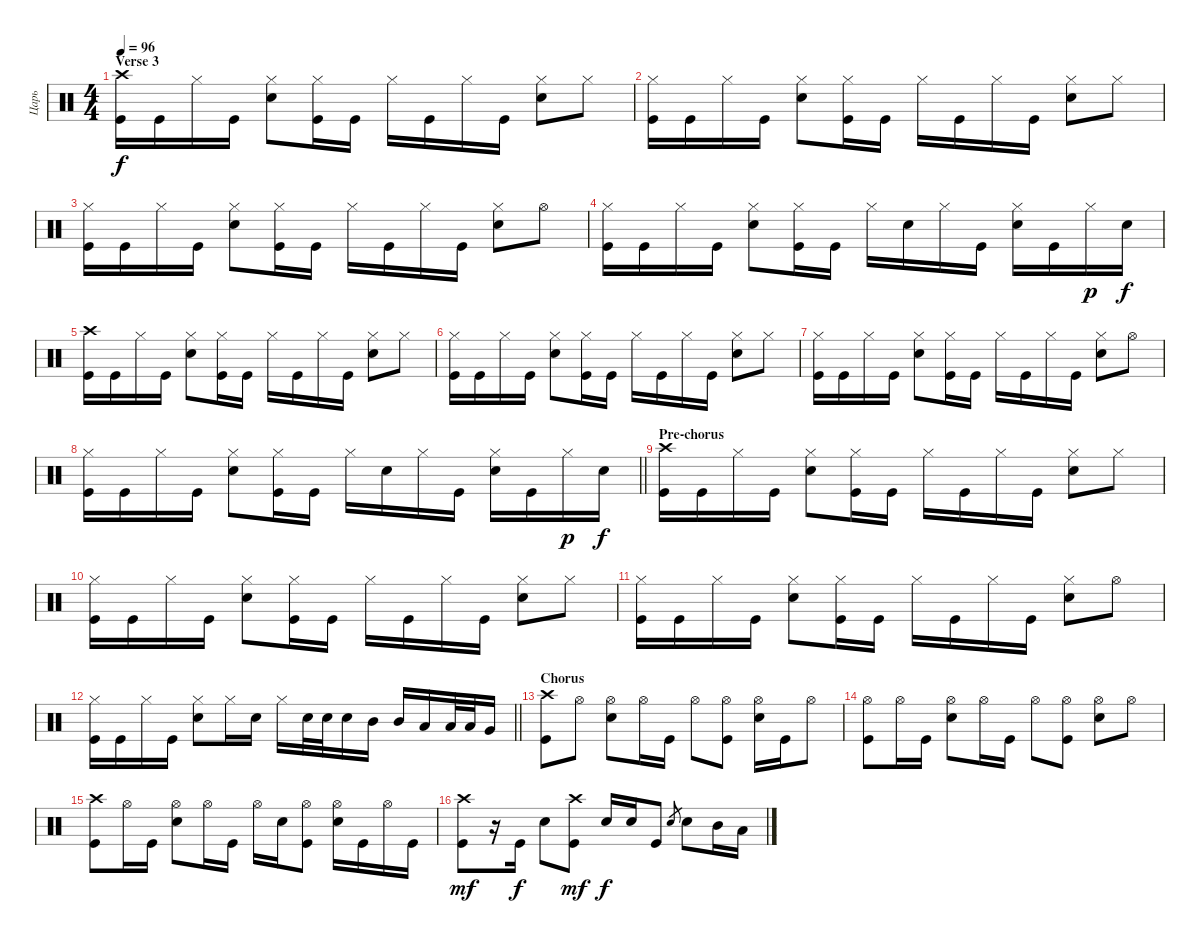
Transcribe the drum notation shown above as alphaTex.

\track ("Царь" "Царь") {instrument percussion}
\staff {score}
\articulation defaults
\ts (4 4)
\section ("" "Verse 3")
\tempo 96
\clef neutral
\ks c
("Kick (hit)" "Crash high (hit)").16{dy f} "Kick (hit)".16 "Hi-Hat (closed)".16 "Kick (hit)".16 ("Electric Snare (hit)" "Hi-Hat (closed)").8 ("Kick (hit)" "Hi-Hat (closed)").16 "Kick (hit)".16 "Hi-Hat (closed)".16 "Kick (hit)".16 "Hi-Hat (closed)".16 "Kick (hit)".16 ("Electric Snare (hit)" "Hi-Hat (closed)").8 "Hi-Hat (closed)".8 |
("Kick (hit)" "Hi-Hat (closed)").16 "Kick (hit)".16 "Hi-Hat (closed)".16 "Kick (hit)".16 ("Electric Snare (hit)" "Hi-Hat (closed)").8 ("Kick (hit)" "Hi-Hat (closed)").16 "Kick (hit)".16 "Hi-Hat (closed)".16 "Kick (hit)".16 "Hi-Hat (closed)".16 "Kick (hit)".16 ("Electric Snare (hit)" "Hi-Hat (closed)").8 "Hi-Hat (closed)".8 |
("Kick (hit)" "Hi-Hat (closed)").16 "Kick (hit)".16 "Hi-Hat (closed)".16 "Kick (hit)".16 ("Electric Snare (hit)" "Hi-Hat (closed)").8 ("Kick (hit)" "Hi-Hat (closed)").16 "Kick (hit)".16 "Hi-Hat (closed)".16 "Kick (hit)".16 "Hi-Hat (closed)".16 "Kick (hit)".16 ("Electric Snare (hit)" "Hi-Hat (closed)").8 "Hi-Hat (open)".8 |
("Kick (hit)" "Hi-Hat (closed)").16 "Kick (hit)".16 "Hi-Hat (closed)".16 "Kick (hit)".16 ("Electric Snare (hit)" "Hi-Hat (closed)").8 ("Kick (hit)" "Hi-Hat (closed)").16 "Kick (hit)".16 "Hi-Hat (closed)".16 "Electric Snare (hit)".16 "Hi-Hat (closed)".16 "Kick (hit)".16 ("Electric Snare (hit)" "Hi-Hat (closed)").16 "Kick (hit)".16 "Hi-Hat (closed)".16{dy p} "Electric Snare (hit)".16{dy f} |
("Kick (hit)" "Crash high (hit)").16 "Kick (hit)".16 "Hi-Hat (closed)".16 "Kick (hit)".16 ("Electric Snare (hit)" "Hi-Hat (closed)").8 ("Kick (hit)" "Hi-Hat (closed)").16 "Kick (hit)".16 "Hi-Hat (closed)".16 "Kick (hit)".16 "Hi-Hat (closed)".16 "Kick (hit)".16 ("Electric Snare (hit)" "Hi-Hat (closed)").8 "Hi-Hat (closed)".8 |
("Kick (hit)" "Hi-Hat (closed)").16 "Kick (hit)".16 "Hi-Hat (closed)".16 "Kick (hit)".16 ("Electric Snare (hit)" "Hi-Hat (closed)").8 ("Kick (hit)" "Hi-Hat (closed)").16 "Kick (hit)".16 "Hi-Hat (closed)".16 "Kick (hit)".16 "Hi-Hat (closed)".16 "Kick (hit)".16 ("Electric Snare (hit)" "Hi-Hat (closed)").8 "Hi-Hat (closed)".8 |
("Kick (hit)" "Hi-Hat (closed)").16 "Kick (hit)".16 "Hi-Hat (closed)".16 "Kick (hit)".16 ("Electric Snare (hit)" "Hi-Hat (closed)").8 ("Kick (hit)" "Hi-Hat (closed)").16 "Kick (hit)".16 "Hi-Hat (closed)".16 "Kick (hit)".16 "Hi-Hat (closed)".16 "Kick (hit)".16 ("Electric Snare (hit)" "Hi-Hat (closed)").8 "Hi-Hat (open)".8 |
\barLineRight lightlight
("Kick (hit)" "Hi-Hat (closed)").16 "Kick (hit)".16 "Hi-Hat (closed)".16 "Kick (hit)".16 ("Electric Snare (hit)" "Hi-Hat (closed)").8 ("Kick (hit)" "Hi-Hat (closed)").16 "Kick (hit)".16 "Hi-Hat (closed)".16 "Electric Snare (hit)".16 "Hi-Hat (closed)".16 "Kick (hit)".16 ("Electric Snare (hit)" "Hi-Hat (closed)").16 "Kick (hit)".16 "Hi-Hat (closed)".16{dy p} "Electric Snare (hit)".16{dy f} |
\section ("" "Pre-chorus")
("Kick (hit)" "Crash high (hit)").16 "Kick (hit)".16 "Hi-Hat (closed)".16 "Kick (hit)".16 ("Electric Snare (hit)" "Hi-Hat (closed)").8 ("Kick (hit)" "Hi-Hat (closed)").16 "Kick (hit)".16 "Hi-Hat (closed)".16 "Kick (hit)".16 "Hi-Hat (closed)".16 "Kick (hit)".16 ("Electric Snare (hit)" "Hi-Hat (closed)").8 "Hi-Hat (closed)".8 |
("Kick (hit)" "Hi-Hat (closed)").16 "Kick (hit)".16 "Hi-Hat (closed)".16 "Kick (hit)".16 ("Electric Snare (hit)" "Hi-Hat (closed)").8 ("Kick (hit)" "Hi-Hat (closed)").16 "Kick (hit)".16 "Hi-Hat (closed)".16 "Kick (hit)".16 "Hi-Hat (closed)".16 "Kick (hit)".16 ("Electric Snare (hit)" "Hi-Hat (closed)").8 "Hi-Hat (closed)".8 |
("Kick (hit)" "Hi-Hat (closed)").16 "Kick (hit)".16 "Hi-Hat (closed)".16 "Kick (hit)".16 ("Electric Snare (hit)" "Hi-Hat (closed)").8 ("Kick (hit)" "Hi-Hat (closed)").16 "Kick (hit)".16 "Hi-Hat (closed)".16 "Kick (hit)".16 "Hi-Hat (closed)".16 "Kick (hit)".16 ("Electric Snare (hit)" "Hi-Hat (closed)").8 "Hi-Hat (open)".8 |
\barLineRight lightlight
("Kick (hit)" "Hi-Hat (closed)").16 "Kick (hit)".16 "Hi-Hat (closed)".16 "Kick (hit)".16 ("Electric Snare (hit)" "Hi-Hat (closed)").8 "Hi-Hat (closed)".16 "Electric Snare (hit)".16 "Hi-Hat (closed)".16 "Electric Snare (hit)".32 "Electric Snare (hit)".32 "Electric Snare (hit)".16 "Mid Tom (hit)".16 "Mid Tom (hit)".16 "Low Tom (hit)".16 "Low Tom (hit)".32 "Low Tom (hit)".32 "Very Low Tom (hit)".16 |
\section ("" "Chorus")
("Crash high (hit)" "Kick (hit)").8 "Hi-Hat (open)".8 ("Electric Snare (hit)" "Hi-Hat (open)").8 "Hi-Hat (open)".16 "Kick (hit)".16 "Hi-Hat (open)".8 ("Kick (hit)" "Hi-Hat (open)").8 ("Electric Snare (hit)" "Hi-Hat (open)").16 "Kick (hit)".16 "Hi-Hat (open)".8 |
("Kick (hit)" "Hi-Hat (open)").8 "Hi-Hat (open)".16 "Kick (hit)".16 ("Electric Snare (hit)" "Hi-Hat (open)").8 "Hi-Hat (open)".16 "Kick (hit)".16 "Hi-Hat (open)".8 ("Kick (hit)" "Hi-Hat (open)").8 ("Electric Snare (hit)" "Hi-Hat (open)").8 "Hi-Hat (open)".8 |
("Crash high (hit)" "Kick (hit)").8 "Hi-Hat (open)".16 "Kick (hit)".16 ("Electric Snare (hit)" "Hi-Hat (open)").8 "Hi-Hat (open)".16 "Kick (hit)".16 "Hi-Hat (open)".16 "Electric Snare (hit)".16 ("Kick (hit)" "Hi-Hat (open)").8 ("Electric Snare (hit)" "Hi-Hat (open)").16 "Kick (hit)".16 "Hi-Hat (open)".16 "Kick (hit)".16 |
("Kick (hit)" "Crash high (hit)").8{dy mf} r.16 "Kick (hit)".16{dy f} "Electric Snare (hit)".8 ("Kick (hit)" "Crash high (hit)").8{dy mf} "Electric Snare (hit)".16{dy f} "Electric Snare (hit)".16 "Kick (hit)".8 "Electric Snare (hit)".8{gr} "Electric Snare (hit)".8 "Mid Tom (hit)".16 "Low Tom (hit)".16
